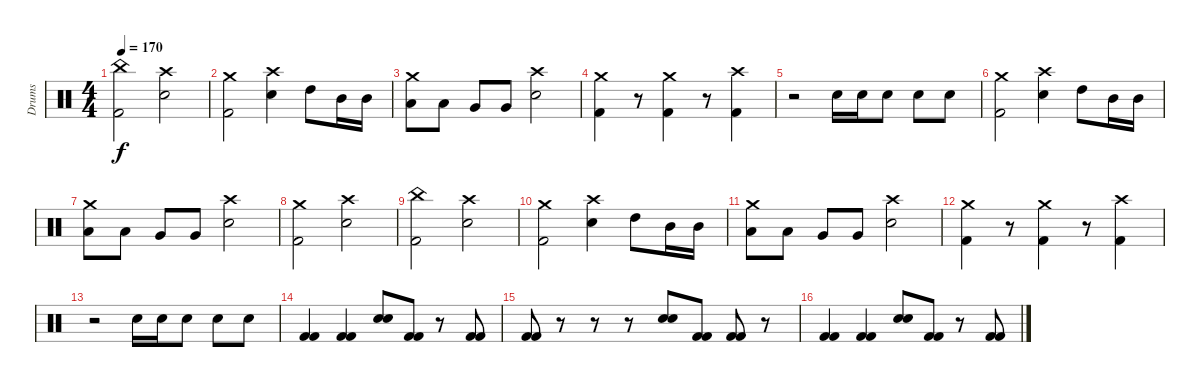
\track ("Drums" "Drums") {instrument percussion}
\staff {score}
\articulation defaults
\ts (4 4)
\tempo 170
\clef neutral
\ks c
("China (hit)" "Kick (hit) 2").2{dy f} ("Crash high (hit)" "Electric Snare (hit)").2 |
("Crash medium (hit)" "Kick (hit) 2").2 ("Crash high (hit)" "Electric Snare (hit)").4 "High Tom (hit)".8 "Mid Tom (hit)".16 "Mid Tom (hit)".16 |
("Crash medium (hit)" "Low Tom (hit)").8 "Low Tom (hit)".8 "Very Low Tom (hit)".8 "Very Low Tom (hit)".8 ("Crash high (hit)" "Electric Snare (hit)").2 |
("Crash medium (hit)" "Kick (hit) 2").4 r.8{volume 0} ("Crash medium (hit)" "Kick (hit) 2").4{volume 10} r.8{volume 0} ("Crash high (hit)" "Kick (hit) 2").4{volume 10} |
r.2 "Electric Snare (hit)".16 "Electric Snare (hit)".16 "Electric Snare (hit)".8 "Electric Snare (hit)".8 "Electric Snare (hit)".8 |
("Crash medium (hit)" "Kick (hit) 2").2 ("Crash high (hit)" "Electric Snare (hit)").4 "High Tom (hit)".8 "Mid Tom (hit)".16 "Mid Tom (hit)".16 |
("Crash medium (hit)" "Low Tom (hit)").8 "Low Tom (hit)".8 "Very Low Tom (hit)".8 "Very Low Tom (hit)".8 ("Crash high (hit)" "Electric Snare (hit)").2 |
("Crash medium (hit)" "Kick (hit) 2").2 ("Crash high (hit)" "Electric Snare (hit)").2 |
("China (hit)" "Kick (hit) 2").2 ("Crash high (hit)" "Electric Snare (hit)").2 |
("Crash medium (hit)" "Kick (hit) 2").2 ("Crash high (hit)" "Electric Snare (hit)").4 "High Tom (hit)".8 "Mid Tom (hit)".16 "Mid Tom (hit)".16 |
("Crash medium (hit)" "Low Tom (hit)").8 "Low Tom (hit)".8 "Very Low Tom (hit)".8 "Very Low Tom (hit)".8 ("Crash high (hit)" "Electric Snare (hit)").2 |
("Crash medium (hit)" "Kick (hit) 2").4 r.8{volume 0} ("Crash medium (hit)" "Kick (hit) 2").4{volume 10} r.8{volume 0} ("Crash high (hit)" "Kick (hit) 2").4{volume 10} |
r.2 "Electric Snare (hit)".16 "Electric Snare (hit)".16 "Electric Snare (hit)".8 "Electric Snare (hit)".8 "Electric Snare (hit)".8 |
("Kick (hit) 2" "Kick (hit) 2").4 ("Kick (hit) 2" "Kick (hit) 2").4 ("Electric Snare (hit)" "Electric Snare (hit)").8 ("Kick (hit) 2" "Kick (hit) 2").8 r.8 ("Kick (hit) 2" "Kick (hit) 2").8 |
("Kick (hit) 2" "Kick (hit) 2").8 r.8 r.8 r.8 ("Electric Snare (hit)" "Electric Snare (hit)").8 ("Kick (hit) 2" "Kick (hit) 2").8 ("Kick (hit) 2" "Kick (hit) 2").8 r.8 |
("Kick (hit) 2" "Kick (hit) 2").4 ("Kick (hit) 2" "Kick (hit) 2").4 ("Electric Snare (hit)" "Electric Snare (hit)").8 ("Kick (hit) 2" "Kick (hit) 2").8 r.8 ("Kick (hit) 2" "Kick (hit) 2").8
